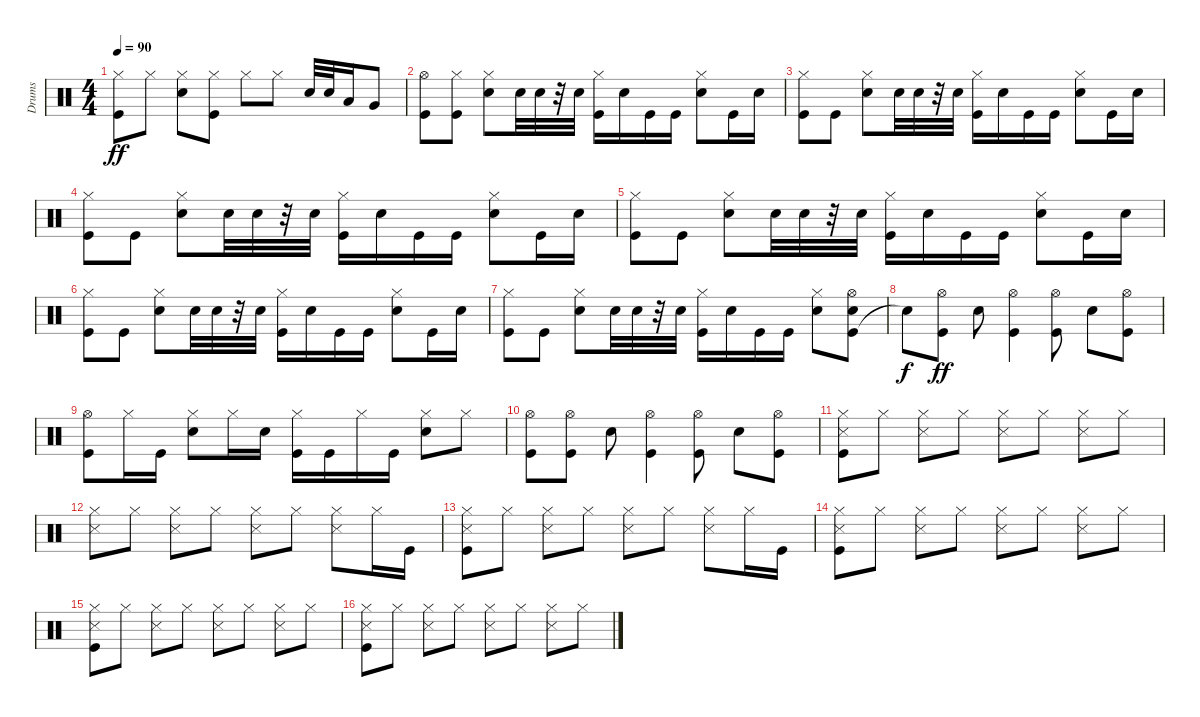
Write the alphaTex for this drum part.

\track ("Drums" "Drums") {instrument percussion}
\staff {score}
\articulation defaults
\ts (4 4)
\tempo 90
\clef neutral
\ks c
("Kick (hit)" "Hi-Hat (closed)").8{dy ff} "Hi-Hat (closed)".8 ("Snare (hit) 2" "Hi-Hat (closed)").8 ("Kick (hit)" "Hi-Hat (closed)").8 "Hi-Hat (closed)".8 "Hi-Hat (closed)".8 "Snare (hit) 2".32 "Snare (hit) 2".32 "Low Tom (hit)".16 "Very Low Tom (hit)".8 |
("Kick (hit)" "Hi-Hat (open)").8 ("Kick (hit)" "Hi-Hat (closed)").8 ("Snare (hit) 2" "Hi-Hat (closed)").8 "Snare (hit) 2".32 "Snare (hit) 2".32 r.32 "Snare (hit) 2".32 ("Kick (hit)" "Hi-Hat (closed)").16 "Snare (hit) 2".16 "Kick (hit)".16 "Kick (hit)".16 ("Snare (hit) 2" "Hi-Hat (closed)").8 "Kick (hit)".16 "Snare (hit) 2".16 |
("Kick (hit)" "Hi-Hat (closed)").8 "Kick (hit)".8 ("Snare (hit) 2" "Hi-Hat (closed)").8 "Snare (hit) 2".32 "Snare (hit) 2".32 r.32 "Snare (hit) 2".32 ("Kick (hit)" "Hi-Hat (closed)").16 "Snare (hit) 2".16 "Kick (hit)".16 "Kick (hit)".16 ("Snare (hit) 2" "Hi-Hat (closed)").8 "Kick (hit)".16 "Snare (hit) 2".16 |
("Kick (hit)" "Hi-Hat (closed)").8 "Kick (hit)".8 ("Snare (hit) 2" "Hi-Hat (closed)").8 "Snare (hit) 2".32 "Snare (hit) 2".32 r.32 "Snare (hit) 2".32 ("Kick (hit)" "Hi-Hat (closed)").16 "Snare (hit) 2".16 "Kick (hit)".16 "Kick (hit)".16 ("Snare (hit) 2" "Hi-Hat (closed)").8 "Kick (hit)".16 "Snare (hit) 2".16 |
("Kick (hit)" "Hi-Hat (closed)").8 "Kick (hit)".8 ("Snare (hit) 2" "Hi-Hat (closed)").8 "Snare (hit) 2".32 "Snare (hit) 2".32 r.32 "Snare (hit) 2".32 ("Kick (hit)" "Hi-Hat (closed)").16 "Snare (hit) 2".16 "Kick (hit)".16 "Kick (hit)".16 ("Snare (hit) 2" "Hi-Hat (closed)").8 "Kick (hit)".16 "Snare (hit) 2".16 |
("Kick (hit)" "Hi-Hat (closed)").8 "Kick (hit)".8 ("Snare (hit) 2" "Hi-Hat (closed)").8 "Snare (hit) 2".32 "Snare (hit) 2".32 r.32 "Snare (hit) 2".32 ("Kick (hit)" "Hi-Hat (closed)").16 "Snare (hit) 2".16 "Kick (hit)".16 "Kick (hit)".16 ("Snare (hit) 2" "Hi-Hat (closed)").8 "Kick (hit)".16 "Snare (hit) 2".16 |
("Kick (hit)" "Hi-Hat (closed)").8 "Kick (hit)".8 ("Snare (hit) 2" "Hi-Hat (closed)").8 "Snare (hit) 2".32 "Snare (hit) 2".32 r.32 "Snare (hit) 2".32 ("Kick (hit)" "Hi-Hat (closed)").16 "Snare (hit) 2".16 "Kick (hit)".16 "Kick (hit)".16 ("Snare (hit) 2" "Hi-Hat (closed)").8 ("Kick (hit)" "Snare (hit) 2" "Hi-Hat (open)").8 |
"Snare (hit)"{t}.8{dy f} ("Kick (hit)" "Hi-Hat (open)").8{dy ff} "Snare (hit) 2".8 ("Kick (hit)" "Hi-Hat (open)").4 ("Kick (hit)" "Hi-Hat (open)").8 "Snare (hit) 2".8 ("Kick (hit)" "Hi-Hat (open)").8 |
("Kick (hit)" "Hi-Hat (open)").8 "Hi-Hat (closed)".16 "Kick (hit)".16 ("Snare (hit) 2" "Hi-Hat (closed)").8 "Hi-Hat (closed)".16 "Snare (hit) 2".16 ("Kick (hit)" "Hi-Hat (closed)").16 "Kick (hit)".16 "Hi-Hat (closed)".16 "Kick (hit)".16 ("Snare (hit) 2" "Hi-Hat (closed)").8 "Hi-Hat (closed)".8 |
("Kick (hit)" "Hi-Hat (open)").8 ("Kick (hit)" "Hi-Hat (open)").8 "Snare (hit) 2".8 ("Kick (hit)" "Hi-Hat (open)").4 ("Kick (hit)" "Hi-Hat (open)").8 "Snare (hit) 2".8 ("Kick (hit)" "Hi-Hat (open)").8 |
("Kick (hit)" "Snare (side stick) 3" "Hi-Hat (closed)").8 "Hi-Hat (closed)".8 ("Snare (side stick) 3" "Hi-Hat (closed)").8 "Hi-Hat (closed)".8 ("Snare (side stick) 3" "Hi-Hat (closed)").8 "Hi-Hat (closed)".8 ("Snare (side stick) 3" "Hi-Hat (closed)").8 "Hi-Hat (closed)".8 |
("Snare (side stick) 3" "Hi-Hat (closed)").8 "Hi-Hat (closed)".8 ("Snare (side stick) 3" "Hi-Hat (closed)").8 "Hi-Hat (closed)".8 ("Snare (side stick) 3" "Hi-Hat (closed)").8 "Hi-Hat (closed)".8 ("Snare (side stick) 3" "Hi-Hat (closed)").8 "Hi-Hat (closed)".16 "Kick (hit)".16 |
("Kick (hit)" "Snare (side stick) 3" "Hi-Hat (closed)").8 "Hi-Hat (closed)".8 ("Snare (side stick) 3" "Hi-Hat (closed)").8 "Hi-Hat (closed)".8 ("Snare (side stick) 3" "Hi-Hat (closed)").8 "Hi-Hat (closed)".8 ("Snare (side stick) 3" "Hi-Hat (closed)").8 "Hi-Hat (closed)".16 "Kick (hit)".16 |
("Kick (hit)" "Snare (side stick) 3" "Hi-Hat (closed)").8 "Hi-Hat (closed)".8 ("Snare (side stick) 3" "Hi-Hat (closed)").8 "Hi-Hat (closed)".8 ("Snare (side stick) 3" "Hi-Hat (closed)").8 "Hi-Hat (closed)".8 ("Snare (side stick) 3" "Hi-Hat (closed)").8 "Hi-Hat (closed)".8 |
("Kick (hit)" "Snare (side stick) 3" "Hi-Hat (closed)").8 "Hi-Hat (closed)".8 ("Snare (side stick) 3" "Hi-Hat (closed)").8 "Hi-Hat (closed)".8 ("Snare (side stick) 3" "Hi-Hat (closed)").8 "Hi-Hat (closed)".8 ("Snare (side stick) 3" "Hi-Hat (closed)").8 "Hi-Hat (closed)".8 |
("Kick (hit)" "Snare (side stick) 3" "Hi-Hat (closed)").8 "Hi-Hat (closed)".8 ("Snare (side stick) 3" "Hi-Hat (closed)").8 "Hi-Hat (closed)".8 ("Snare (side stick) 3" "Hi-Hat (closed)").8 "Hi-Hat (closed)".8 ("Snare (side stick) 3" "Hi-Hat (closed)").8 "Hi-Hat (closed)".8
